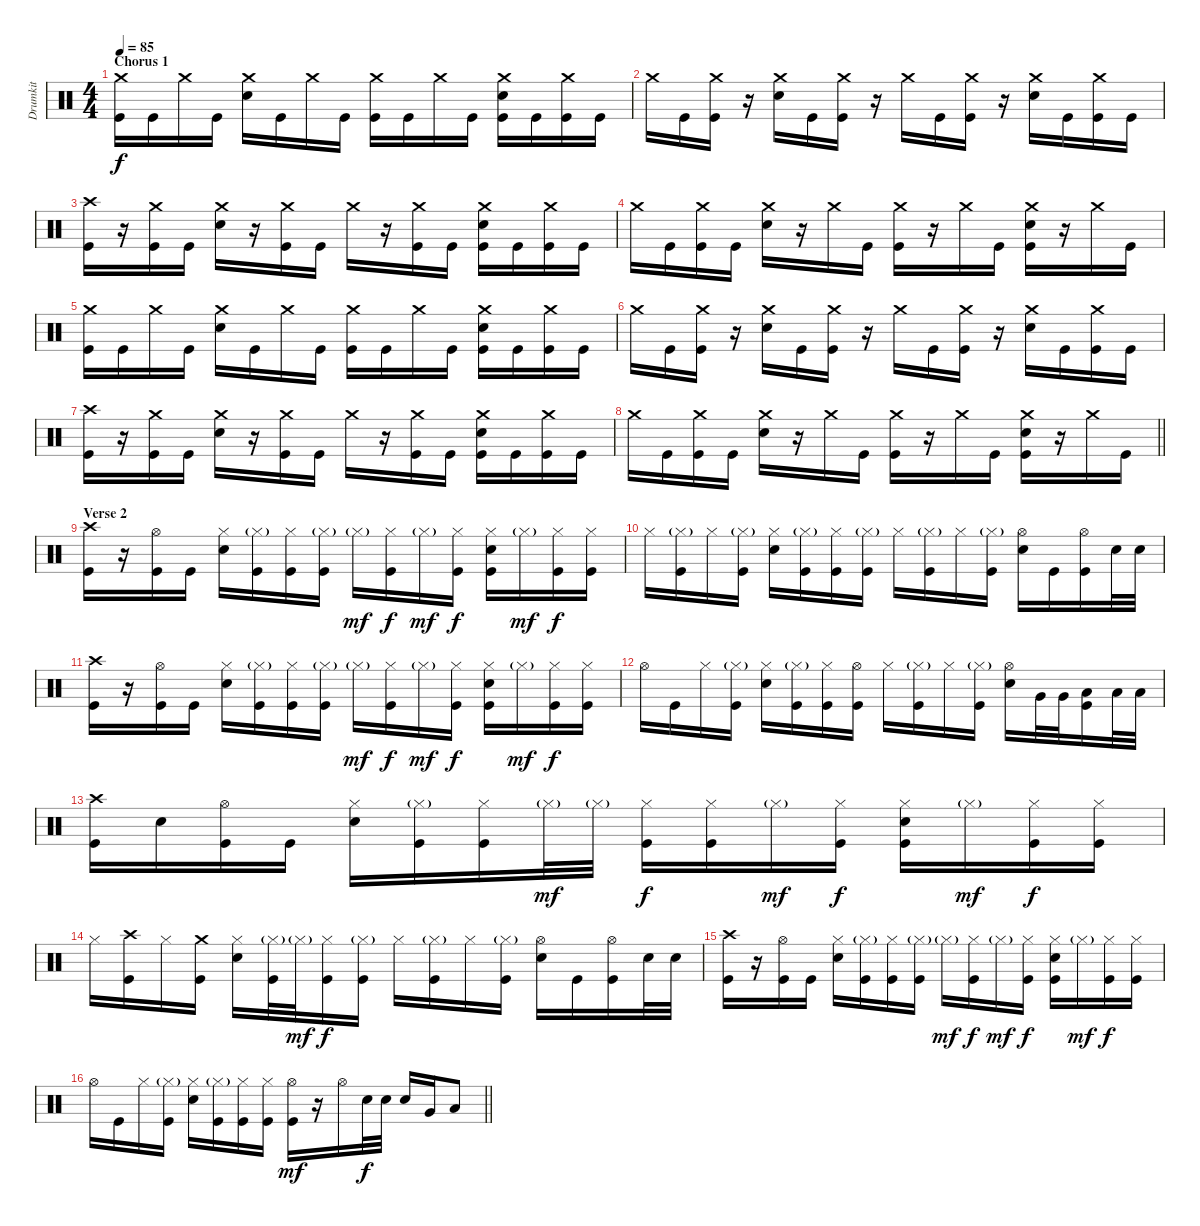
\track ("Drumkit" "Drumkit") {instrument percussion}
\staff {score}
\articulation defaults
\ts (4 4)
\section ("" "Chorus 1")
\tempo 85
\clef neutral
\ks c
("Crash medium (hit)" "Kick (hit)").16{dy f} "Kick (hit)".16 "Crash medium (hit)".16 "Kick (hit)".16 ("Crash medium (hit)" "Snare (hit) 2").16 "Kick (hit)".16 "Crash medium (hit)".16 "Kick (hit)".16 ("Crash medium (hit)" "Kick (hit)").16 "Kick (hit)".16 "Crash medium (hit)".16 "Kick (hit)".16 ("Crash medium (hit)" "Snare (hit) 2" "Kick (hit)").16 "Kick (hit)".16 ("Crash medium (hit)" "Kick (hit)").16 "Kick (hit)".16 |
"Crash medium (hit)".16 "Kick (hit)".16 ("Crash medium (hit)" "Kick (hit)").16 r.16 ("Crash medium (hit)" "Snare (hit) 2").16 "Kick (hit)".16 ("Crash medium (hit)" "Kick (hit)").16 r.16 "Crash medium (hit)".16 "Kick (hit)".16 ("Crash medium (hit)" "Kick (hit)").16 r.16 ("Crash medium (hit)" "Snare (hit) 2").16 "Kick (hit)".16 ("Crash medium (hit)" "Kick (hit)").16 "Kick (hit)".16 |
("Crash high (hit)" "Kick (hit)").16 r.16 ("Crash medium (hit)" "Kick (hit)").16 "Kick (hit)".16 ("Crash medium (hit)" "Snare (hit) 2").16 r.16 ("Crash medium (hit)" "Kick (hit)").16 "Kick (hit)".16 "Crash medium (hit)".16 r.16 ("Crash medium (hit)" "Kick (hit)").16 "Kick (hit)".16 ("Crash medium (hit)" "Snare (hit) 2" "Kick (hit)").16 "Kick (hit)".16 ("Crash medium (hit)" "Kick (hit)").16 "Kick (hit)".16 |
"Crash medium (hit)".16 "Kick (hit)".16 ("Crash medium (hit)" "Kick (hit)").16 "Kick (hit)".16 ("Crash medium (hit)" "Snare (hit) 2").16 r.16 "Crash medium (hit)".16 "Kick (hit)".16 ("Crash medium (hit)" "Kick (hit)").16 r.16 "Crash medium (hit)".16 "Kick (hit)".16 ("Crash medium (hit)" "Snare (hit) 2" "Kick (hit)").16 r.16 "Crash medium (hit)".16 "Kick (hit)".16 |
("Crash medium (hit)" "Kick (hit)").16 "Kick (hit)".16 "Crash medium (hit)".16 "Kick (hit)".16 ("Crash medium (hit)" "Snare (hit) 2").16 "Kick (hit)".16 "Crash medium (hit)".16 "Kick (hit)".16 ("Crash medium (hit)" "Kick (hit)").16 "Kick (hit)".16 "Crash medium (hit)".16 "Kick (hit)".16 ("Crash medium (hit)" "Snare (hit) 2" "Kick (hit)").16 "Kick (hit)".16 ("Crash medium (hit)" "Kick (hit)").16 "Kick (hit)".16 |
"Crash medium (hit)".16 "Kick (hit)".16 ("Crash medium (hit)" "Kick (hit)").16 r.16 ("Crash medium (hit)" "Snare (hit) 2").16 "Kick (hit)".16 ("Crash medium (hit)" "Kick (hit)").16 r.16 "Crash medium (hit)".16 "Kick (hit)".16 ("Crash medium (hit)" "Kick (hit)").16 r.16 ("Crash medium (hit)" "Snare (hit) 2").16 "Kick (hit)".16 ("Crash medium (hit)" "Kick (hit)").16 "Kick (hit)".16 |
("Crash high (hit)" "Kick (hit)").16 r.16 ("Crash medium (hit)" "Kick (hit)").16 "Kick (hit)".16 ("Crash medium (hit)" "Snare (hit) 2").16 r.16 ("Crash medium (hit)" "Kick (hit)").16 "Kick (hit)".16 "Crash medium (hit)".16 r.16 ("Crash medium (hit)" "Kick (hit)").16 "Kick (hit)".16 ("Crash medium (hit)" "Snare (hit) 2" "Kick (hit)").16 "Kick (hit)".16 ("Crash medium (hit)" "Kick (hit)").16 "Kick (hit)".16 |
\barLineRight lightlight "Crash medium (hit)".16 "Kick (hit)".16
("Crash medium (hit)" "Kick (hit)").16 "Kick (hit)".16 ("Crash medium (hit)" "Snare (hit) 2").16 r.16 "Crash medium (hit)".16 "Kick (hit)".16 ("Crash medium (hit)" "Kick (hit)").16 r.16 "Crash medium (hit)".16 "Kick (hit)".16 ("Crash medium (hit)" "Snare (hit) 2" "Kick (hit)").16 r.16 "Crash medium (hit)".16 "Kick (hit)".16 |
\section ("" "Verse 2")
("Crash high (hit)" "Kick (hit)").16 r.16 ("Hi-Hat (open)" "Kick (hit)").16 "Kick (hit)".16 ("Hi-Hat (closed)" "Snare (hit) 2").16 ("Hi-Hat (closed)"{g} "Kick (hit)").16 ("Hi-Hat (closed)" "Kick (hit)").16 ("Hi-Hat (closed)"{g} "Kick (hit)").16 "Hi-Hat (closed)"{g}.16{dy mf} ("Hi-Hat (closed)" "Kick (hit)").16{dy f} "Hi-Hat (closed)"{g}.16{dy mf} ("Hi-Hat (closed)" "Kick (hit)").16{dy f} ("Hi-Hat (closed)" "Snare (hit) 2" "Kick (hit)").16 "Hi-Hat (closed)"{g}.16{dy mf} ("Hi-Hat (closed)" "Kick (hit)").16{dy f} ("Hi-Hat (closed)" "Kick (hit)").16 |
"Hi-Hat (closed)".16 ("Hi-Hat (closed)"{g} "Kick (hit)").16 "Hi-Hat (closed)".16 ("Hi-Hat (closed)"{g} "Kick (hit)").16 ("Hi-Hat (closed)" "Snare (hit) 2").16 ("Hi-Hat (closed)"{g} "Kick (hit)").16 ("Hi-Hat (closed)" "Kick (hit)").16 ("Hi-Hat (closed)"{g} "Kick (hit)").16 "Hi-Hat (closed)".16 ("Hi-Hat (closed)"{g} "Kick (hit)").16 "Hi-Hat (closed)".16 ("Hi-Hat (closed)"{g} "Kick (hit)").16 ("Hi-Hat (open)" "Snare (hit) 2").16 "Kick (hit)".16 ("Hi-Hat (open)" "Kick (hit)").16 "Snare (hit) 2".32 "Snare (hit) 2".32 |
("Crash high (hit)" "Kick (hit)").16 r.16 ("Hi-Hat (open)" "Kick (hit)").16 "Kick (hit)".16 ("Hi-Hat (closed)" "Snare (hit) 2").16 ("Hi-Hat (closed)"{g} "Kick (hit)").16 ("Hi-Hat (closed)" "Kick (hit)").16 ("Hi-Hat (closed)"{g} "Kick (hit)").16 "Hi-Hat (closed)"{g}.16{dy mf} ("Hi-Hat (closed)" "Kick (hit)").16{dy f} "Hi-Hat (closed)"{g}.16{dy mf} ("Hi-Hat (closed)" "Kick (hit)").16{dy f} ("Hi-Hat (closed)" "Snare (hit) 2" "Kick (hit)").16 "Hi-Hat (closed)"{g}.16{dy mf} ("Hi-Hat (closed)" "Kick (hit)").16{dy f} ("Hi-Hat (closed)" "Kick (hit)").16 |
"Hi-Hat (open)".16 "Kick (hit)".16 "Hi-Hat (closed)".16 ("Hi-Hat (closed)"{g} "Kick (hit)").16 ("Hi-Hat (closed)" "Snare (hit) 2").16 ("Hi-Hat (closed)"{g} "Kick (hit)").16 ("Hi-Hat (closed)" "Kick (hit)").16 ("Hi-Hat (open)" "Kick (hit)").16 "Hi-Hat (closed)".16 ("Hi-Hat (closed)"{g} "Kick (hit)").16 "Hi-Hat (closed)".16 ("Hi-Hat (closed)"{g} "Kick (hit)").16 ("Hi-Hat (open)" "Snare (hit) 2").16 "Very Low Tom (hit)".32 "Very Low Tom (hit)".32 ("Low Floor Tom (hit)" "Kick (hit)").16 "Low Floor Tom (hit)".32 "Low Floor Tom (hit)".32 |
("Crash high (hit)" "Kick (hit)").16 "Snare (hit) 2".16 ("Hi-Hat (open)" "Kick (hit)").16 "Kick (hit)".16 ("Hi-Hat (closed)" "Snare (hit) 2").16 ("Hi-Hat (closed)"{g} "Kick (hit)").16 ("Hi-Hat (closed)" "Kick (hit)").16 "Hi-Hat (closed)"{g}.32{dy mf} "Hi-Hat (closed)"{g}.32 ("Hi-Hat (closed)" "Kick (hit)").16{dy f} ("Hi-Hat (closed)" "Kick (hit)").16 "Hi-Hat (closed)"{g}.16{dy mf} ("Hi-Hat (closed)" "Kick (hit)").16{dy f} ("Hi-Hat (closed)" "Snare (hit) 2" "Kick (hit)").16 "Hi-Hat (closed)"{g}.16{dy mf} ("Hi-Hat (closed)" "Kick (hit)").16{dy f} ("Hi-Hat (closed)" "Kick (hit)").16 |
"Hi-Hat (closed)".16 ("Crash high (hit)" "Kick (hit)").16 "Hi-Hat (closed)".16 ("Crash medium (hit)" "Kick (hit)").16 ("Hi-Hat (closed)" "Snare (hit) 2").16 ("Hi-Hat (closed)"{g} "Kick (hit)").32 "Hi-Hat (closed)"{g}.32{dy mf} ("Hi-Hat (closed)" "Kick (hit)").16{dy f} ("Hi-Hat (closed)"{g} "Kick (hit)").16 "Hi-Hat (closed)".16 ("Hi-Hat (closed)"{g} "Kick (hit)").16 "Hi-Hat (closed)".16 ("Hi-Hat (closed)"{g} "Kick (hit)").16 ("Hi-Hat (open)" "Snare (hit) 2").16 "Kick (hit)".16 ("Hi-Hat (open)" "Kick (hit)").16 "Snare (hit) 2".32 "Snare (hit) 2".32 |
("Crash high (hit)" "Kick (hit)").16 r.16 ("Hi-Hat (open)" "Kick (hit)").16 "Kick (hit)".16 ("Hi-Hat (closed)" "Snare (hit) 2").16 ("Hi-Hat (closed)"{g} "Kick (hit)").16 ("Hi-Hat (closed)" "Kick (hit)").16 ("Hi-Hat (closed)"{g} "Kick (hit)").16 "Hi-Hat (closed)"{g}.16{dy mf} ("Hi-Hat (closed)" "Kick (hit)").16{dy f} "Hi-Hat (closed)"{g}.16{dy mf} ("Hi-Hat (closed)" "Kick (hit)").16{dy f} ("Hi-Hat (closed)" "Snare (hit) 2" "Kick (hit)").16 "Hi-Hat (closed)"{g}.16{dy mf} ("Hi-Hat (closed)" "Kick (hit)").16{dy f} ("Hi-Hat (closed)" "Kick (hit)").16 |
\barLineRight lightlight "Hi-Hat (open)".16 "Kick (hit)".16 "Hi-Hat (closed)".16
("Hi-Hat (closed)"{g} "Kick (hit)").16 ("Hi-Hat (closed)" "Snare (hit) 2").16 ("Hi-Hat (closed)"{g} "Kick (hit)").16 ("Hi-Hat (closed)" "Kick (hit)").16 ("Hi-Hat (closed)" "Kick (hit)").16 ("Hi-Hat (open)" "Kick (hit)").16{dy mf} r.16 "Hi-Hat (open)".16 "Snare (hit) 2".32{dy f} "Snare (hit) 2".32 "Snare (hit) 2".16 "Very Low Tom (hit)".16 "Low Floor Tom (hit)".8
